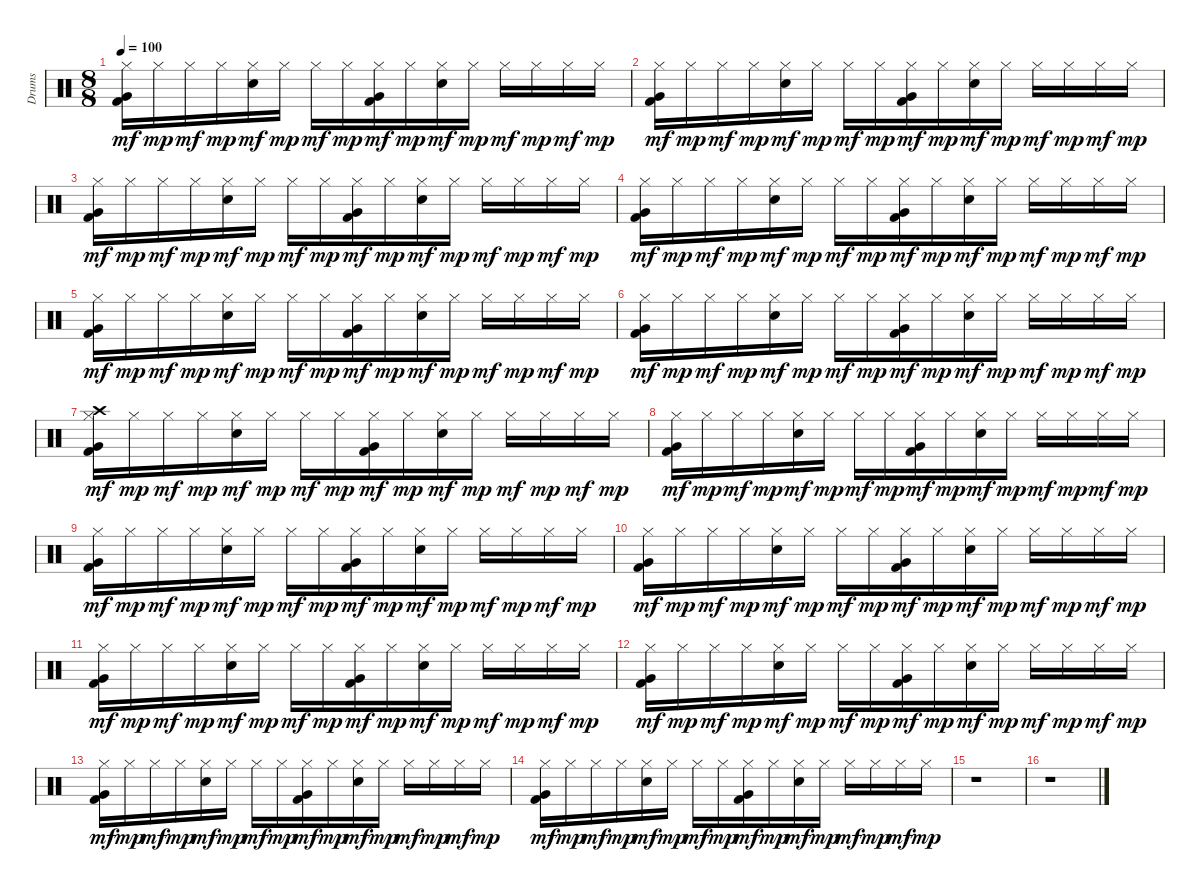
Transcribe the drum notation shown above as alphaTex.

\track ("Drums" "Drums") {instrument percussion}
\staff {score}
\articulation defaults
\ts (8 8)
\tempo 100
\clef neutral
\ks c
("Kick (hit) 2" "Very Low Tom (hit)" "Hi-Hat (closed)").16{dy mf} "Hi-Hat (closed)".16{dy mp} "Hi-Hat (closed)".16{dy mf} "Hi-Hat (closed)".16{dy mp} ("Electric Snare (hit)" "Hi-Hat (closed)").16{dy mf} "Hi-Hat (closed)".16{dy mp} "Hi-Hat (closed)".16{dy mf} "Hi-Hat (closed)".16{dy mp} ("Kick (hit) 2" "Very Low Tom (hit)" "Hi-Hat (closed)").16{dy mf} "Hi-Hat (closed)".16{dy mp} ("Electric Snare (hit)" "Hi-Hat (closed)").16{dy mf} "Hi-Hat (closed)".16{dy mp} "Hi-Hat (closed)".16{dy mf} "Hi-Hat (closed)".16{dy mp} "Hi-Hat (closed)".16{dy mf} "Hi-Hat (closed)".16{dy mp} |
("Kick (hit) 2" "Very Low Tom (hit)" "Hi-Hat (closed)").16{dy mf} "Hi-Hat (closed)".16{dy mp} "Hi-Hat (closed)".16{dy mf} "Hi-Hat (closed)".16{dy mp} ("Electric Snare (hit)" "Hi-Hat (closed)").16{dy mf} "Hi-Hat (closed)".16{dy mp} "Hi-Hat (closed)".16{dy mf} "Hi-Hat (closed)".16{dy mp} ("Kick (hit) 2" "Very Low Tom (hit)" "Hi-Hat (closed)").16{dy mf} "Hi-Hat (closed)".16{dy mp} ("Electric Snare (hit)" "Hi-Hat (closed)").16{dy mf} "Hi-Hat (closed)".16{dy mp} "Hi-Hat (closed)".16{dy mf} "Hi-Hat (closed)".16{dy mp} "Hi-Hat (closed)".16{dy mf} "Hi-Hat (closed)".16{dy mp} |
("Kick (hit) 2" "Very Low Tom (hit)" "Hi-Hat (closed)").16{dy mf} "Hi-Hat (closed)".16{dy mp} "Hi-Hat (closed)".16{dy mf} "Hi-Hat (closed)".16{dy mp} ("Electric Snare (hit)" "Hi-Hat (closed)").16{dy mf} "Hi-Hat (closed)".16{dy mp} "Hi-Hat (closed)".16{dy mf} "Hi-Hat (closed)".16{dy mp} ("Kick (hit) 2" "Very Low Tom (hit)" "Hi-Hat (closed)").16{dy mf} "Hi-Hat (closed)".16{dy mp} ("Electric Snare (hit)" "Hi-Hat (closed)").16{dy mf} "Hi-Hat (closed)".16{dy mp} "Hi-Hat (closed)".16{dy mf} "Hi-Hat (closed)".16{dy mp} "Hi-Hat (closed)".16{dy mf} "Hi-Hat (closed)".16{dy mp} |
("Kick (hit) 2" "Very Low Tom (hit)" "Hi-Hat (closed)").16{dy mf} "Hi-Hat (closed)".16{dy mp} "Hi-Hat (closed)".16{dy mf} "Hi-Hat (closed)".16{dy mp} ("Electric Snare (hit)" "Hi-Hat (closed)").16{dy mf} "Hi-Hat (closed)".16{dy mp} "Hi-Hat (closed)".16{dy mf} "Hi-Hat (closed)".16{dy mp} ("Kick (hit) 2" "Very Low Tom (hit)" "Hi-Hat (closed)").16{dy mf} "Hi-Hat (closed)".16{dy mp} ("Electric Snare (hit)" "Hi-Hat (closed)").16{dy mf} "Hi-Hat (closed)".16{dy mp} "Hi-Hat (closed)".16{dy mf} "Hi-Hat (closed)".16{dy mp} "Hi-Hat (closed)".16{dy mf} "Hi-Hat (closed)".16{dy mp} |
("Kick (hit) 2" "Very Low Tom (hit)" "Hi-Hat (closed)").16{dy mf} "Hi-Hat (closed)".16{dy mp} "Hi-Hat (closed)".16{dy mf} "Hi-Hat (closed)".16{dy mp} ("Electric Snare (hit)" "Hi-Hat (closed)").16{dy mf} "Hi-Hat (closed)".16{dy mp} "Hi-Hat (closed)".16{dy mf} "Hi-Hat (closed)".16{dy mp} ("Kick (hit) 2" "Very Low Tom (hit)" "Hi-Hat (closed)").16{dy mf} "Hi-Hat (closed)".16{dy mp} ("Electric Snare (hit)" "Hi-Hat (closed)").16{dy mf} "Hi-Hat (closed)".16{dy mp} "Hi-Hat (closed)".16{dy mf} "Hi-Hat (closed)".16{dy mp} "Hi-Hat (closed)".16{dy mf} "Hi-Hat (closed)".16{dy mp} |
("Kick (hit) 2" "Very Low Tom (hit)" "Hi-Hat (closed)").16{dy mf} "Hi-Hat (closed)".16{dy mp} "Hi-Hat (closed)".16{dy mf} "Hi-Hat (closed)".16{dy mp} ("Electric Snare (hit)" "Hi-Hat (closed)").16{dy mf} "Hi-Hat (closed)".16{dy mp} "Hi-Hat (closed)".16{dy mf} "Hi-Hat (closed)".16{dy mp} ("Kick (hit) 2" "Very Low Tom (hit)" "Hi-Hat (closed)").16{dy mf} "Hi-Hat (closed)".16{dy mp} ("Electric Snare (hit)" "Hi-Hat (closed)").16{dy mf} "Hi-Hat (closed)".16{dy mp} "Hi-Hat (closed)".16{dy mf} "Hi-Hat (closed)".16{dy mp} "Hi-Hat (closed)".16{dy mf} "Hi-Hat (closed)".16{dy mp} |
("Crash high (hit)" "Kick (hit) 2" "Very Low Tom (hit)" "Hi-Hat (closed)").16{dy mf} "Hi-Hat (closed)".16{dy mp} "Hi-Hat (closed)".16{dy mf} "Hi-Hat (closed)".16{dy mp} ("Electric Snare (hit)" "Hi-Hat (closed)").16{dy mf} "Hi-Hat (closed)".16{dy mp} "Hi-Hat (closed)".16{dy mf} "Hi-Hat (closed)".16{dy mp} ("Kick (hit) 2" "Very Low Tom (hit)" "Hi-Hat (closed)").16{dy mf} "Hi-Hat (closed)".16{dy mp} ("Electric Snare (hit)" "Hi-Hat (closed)").16{dy mf} "Hi-Hat (closed)".16{dy mp} "Hi-Hat (closed)".16{dy mf} "Hi-Hat (closed)".16{dy mp} "Hi-Hat (closed)".16{dy mf} "Hi-Hat (closed)".16{dy mp} |
("Kick (hit) 2" "Very Low Tom (hit)" "Hi-Hat (closed)").16{dy mf} "Hi-Hat (closed)".16{dy mp} "Hi-Hat (closed)".16{dy mf} "Hi-Hat (closed)".16{dy mp} ("Electric Snare (hit)" "Hi-Hat (closed)").16{dy mf} "Hi-Hat (closed)".16{dy mp} "Hi-Hat (closed)".16{dy mf} "Hi-Hat (closed)".16{dy mp} ("Kick (hit) 2" "Very Low Tom (hit)" "Hi-Hat (closed)").16{dy mf} "Hi-Hat (closed)".16{dy mp} ("Electric Snare (hit)" "Hi-Hat (closed)").16{dy mf} "Hi-Hat (closed)".16{dy mp} "Hi-Hat (closed)".16{dy mf} "Hi-Hat (closed)".16{dy mp} "Hi-Hat (closed)".16{dy mf} "Hi-Hat (closed)".16{dy mp} |
("Kick (hit) 2" "Very Low Tom (hit)" "Hi-Hat (closed)").16{dy mf} "Hi-Hat (closed)".16{dy mp} "Hi-Hat (closed)".16{dy mf} "Hi-Hat (closed)".16{dy mp} ("Electric Snare (hit)" "Hi-Hat (closed)").16{dy mf} "Hi-Hat (closed)".16{dy mp} "Hi-Hat (closed)".16{dy mf} "Hi-Hat (closed)".16{dy mp} ("Kick (hit) 2" "Very Low Tom (hit)" "Hi-Hat (closed)").16{dy mf} "Hi-Hat (closed)".16{dy mp} ("Electric Snare (hit)" "Hi-Hat (closed)").16{dy mf} "Hi-Hat (closed)".16{dy mp} "Hi-Hat (closed)".16{dy mf} "Hi-Hat (closed)".16{dy mp} "Hi-Hat (closed)".16{dy mf} "Hi-Hat (closed)".16{dy mp} |
("Kick (hit) 2" "Very Low Tom (hit)" "Hi-Hat (closed)").16{dy mf} "Hi-Hat (closed)".16{dy mp} "Hi-Hat (closed)".16{dy mf} "Hi-Hat (closed)".16{dy mp} ("Electric Snare (hit)" "Hi-Hat (closed)").16{dy mf} "Hi-Hat (closed)".16{dy mp} "Hi-Hat (closed)".16{dy mf} "Hi-Hat (closed)".16{dy mp} ("Kick (hit) 2" "Very Low Tom (hit)" "Hi-Hat (closed)").16{dy mf} "Hi-Hat (closed)".16{dy mp} ("Electric Snare (hit)" "Hi-Hat (closed)").16{dy mf} "Hi-Hat (closed)".16{dy mp} "Hi-Hat (closed)".16{dy mf} "Hi-Hat (closed)".16{dy mp} "Hi-Hat (closed)".16{dy mf} "Hi-Hat (closed)".16{dy mp} |
("Kick (hit) 2" "Very Low Tom (hit)" "Hi-Hat (closed)").16{dy mf} "Hi-Hat (closed)".16{dy mp} "Hi-Hat (closed)".16{dy mf} "Hi-Hat (closed)".16{dy mp} ("Electric Snare (hit)" "Hi-Hat (closed)").16{dy mf} "Hi-Hat (closed)".16{dy mp} "Hi-Hat (closed)".16{dy mf} "Hi-Hat (closed)".16{dy mp} ("Kick (hit) 2" "Very Low Tom (hit)" "Hi-Hat (closed)").16{dy mf} "Hi-Hat (closed)".16{dy mp} ("Electric Snare (hit)" "Hi-Hat (closed)").16{dy mf} "Hi-Hat (closed)".16{dy mp} "Hi-Hat (closed)".16{dy mf} "Hi-Hat (closed)".16{dy mp} "Hi-Hat (closed)".16{dy mf} "Hi-Hat (closed)".16{dy mp} |
("Kick (hit) 2" "Very Low Tom (hit)" "Hi-Hat (closed)").16{dy mf} "Hi-Hat (closed)".16{dy mp} "Hi-Hat (closed)".16{dy mf} "Hi-Hat (closed)".16{dy mp} ("Electric Snare (hit)" "Hi-Hat (closed)").16{dy mf} "Hi-Hat (closed)".16{dy mp} "Hi-Hat (closed)".16{dy mf} "Hi-Hat (closed)".16{dy mp} ("Kick (hit) 2" "Very Low Tom (hit)" "Hi-Hat (closed)").16{dy mf} "Hi-Hat (closed)".16{dy mp} ("Electric Snare (hit)" "Hi-Hat (closed)").16{dy mf} "Hi-Hat (closed)".16{dy mp} "Hi-Hat (closed)".16{dy mf} "Hi-Hat (closed)".16{dy mp} "Hi-Hat (closed)".16{dy mf} "Hi-Hat (closed)".16{dy mp} |
("Kick (hit) 2" "Very Low Tom (hit)" "Hi-Hat (closed)").16{dy mf} "Hi-Hat (closed)".16{dy mp} "Hi-Hat (closed)".16{dy mf} "Hi-Hat (closed)".16{dy mp} ("Electric Snare (hit)" "Hi-Hat (closed)").16{dy mf} "Hi-Hat (closed)".16{dy mp} "Hi-Hat (closed)".16{dy mf} "Hi-Hat (closed)".16{dy mp} ("Kick (hit) 2" "Very Low Tom (hit)" "Hi-Hat (closed)").16{dy mf} "Hi-Hat (closed)".16{dy mp} ("Electric Snare (hit)" "Hi-Hat (closed)").16{dy mf} "Hi-Hat (closed)".16{dy mp} "Hi-Hat (closed)".16{dy mf} "Hi-Hat (closed)".16{dy mp} "Hi-Hat (closed)".16{dy mf} "Hi-Hat (closed)".16{dy mp} |
("Kick (hit) 2" "Very Low Tom (hit)" "Hi-Hat (closed)").16{dy mf} "Hi-Hat (closed)".16{dy mp} "Hi-Hat (closed)".16{dy mf} "Hi-Hat (closed)".16{dy mp} ("Electric Snare (hit)" "Hi-Hat (closed)").16{dy mf} "Hi-Hat (closed)".16{dy mp} "Hi-Hat (closed)".16{dy mf} "Hi-Hat (closed)".16{dy mp} ("Kick (hit) 2" "Very Low Tom (hit)" "Hi-Hat (closed)").16{dy mf} "Hi-Hat (closed)".16{dy mp} ("Electric Snare (hit)" "Hi-Hat (closed)").16{dy mf} "Hi-Hat (closed)".16{dy mp} "Hi-Hat (closed)".16{dy mf} "Hi-Hat (closed)".16{dy mp} "Hi-Hat (closed)".16{dy mf} "Hi-Hat (closed)".16{dy mp} |
r.1 |
r.1
